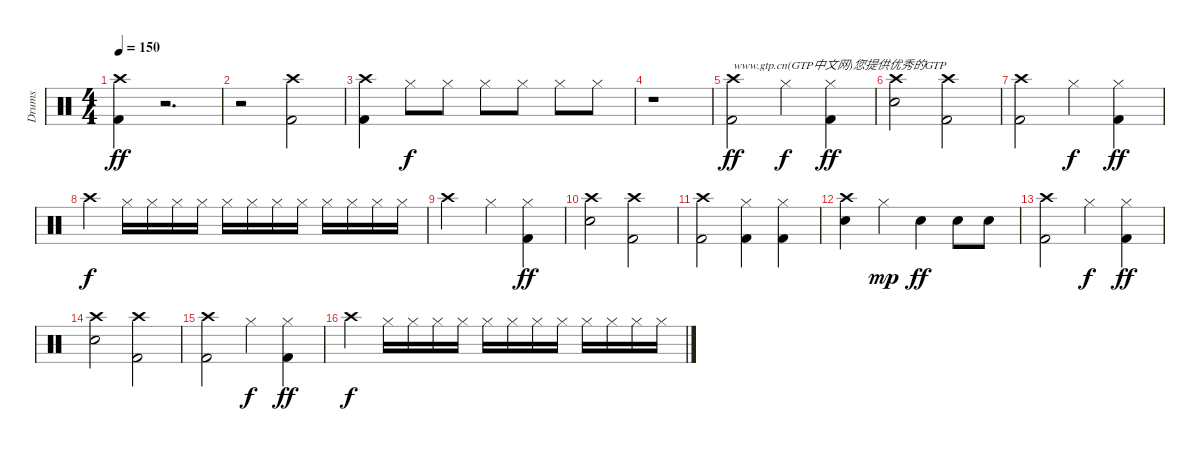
\track ("Drums" "Drums") {instrument percussion}
\staff {score}
\articulation defaults
\ts (4 4)
\tempo 150
\clef neutral
\ks c
("Kick (hit) 2" "Crash high (hit)").4{dy ff} r.2{d} |
r.2 ("Kick (hit) 2" "Crash high (hit)").2 |
("Kick (hit) 2" "Crash high (hit)").4 "Hi-Hat (closed)".8{dy f} "Hi-Hat (closed)".8 "Hi-Hat (closed)".8 "Hi-Hat (closed)".8 "Hi-Hat (closed)".8 "Hi-Hat (closed)".8 |
r.1 |
("Crash high (hit)" "Kick (hit) 2").2{txt "www.gtp.cn(GTP中文网)您提供优秀的GTP" dy ff} "Hi-Hat (closed)".4{dy f} ("Hi-Hat (closed)" "Kick (hit) 2").4{dy ff} |
("Crash high (hit)" "Snare (hit) 2").2 ("Crash high (hit)" "Kick (hit) 2").2 |
("Crash high (hit)" "Kick (hit) 2").2 "Hi-Hat (closed)".4{dy f} ("Hi-Hat (closed)" "Kick (hit) 2").4{dy ff} |
"Crash high (hit)".4{dy f} "Hi-Hat (closed)".16 "Hi-Hat (closed)".16 "Hi-Hat (closed)".16 "Hi-Hat (closed)".16 "Hi-Hat (closed)".16 "Hi-Hat (closed)".16 "Hi-Hat (closed)".16 "Hi-Hat (closed)".16 "Hi-Hat (closed)".16 "Hi-Hat (closed)".16 "Hi-Hat (closed)".16 "Hi-Hat (closed)".16 |
"Crash high (hit)".2 "Hi-Hat (closed)".4 ("Hi-Hat (closed)" "Kick (hit) 2").4{dy ff} |
("Crash high (hit)" "Snare (hit) 2").2 ("Crash high (hit)" "Kick (hit) 2").2 |
("Crash high (hit)" "Kick (hit) 2").2 ("Kick (hit) 2" "Hi-Hat (closed)").4 ("Hi-Hat (closed)" "Kick (hit) 2").4 |
("Snare (hit) 2" "Crash high (hit)").4 "Hi-Hat (closed)".4{dy mp} "Snare (hit) 2".4{dy ff} "Snare (hit) 2".8 "Snare (hit) 2".8 |
("Crash high (hit)" "Kick (hit) 2").2 "Hi-Hat (closed)".4{dy f} ("Hi-Hat (closed)" "Kick (hit) 2").4{dy ff} |
("Crash high (hit)" "Snare (hit) 2").2 ("Crash high (hit)" "Kick (hit) 2").2 |
("Crash high (hit)" "Kick (hit) 2").2 "Hi-Hat (closed)".4{dy f} ("Hi-Hat (closed)" "Kick (hit) 2").4{dy ff} |
"Crash high (hit)".4{dy f} "Hi-Hat (closed)".16 "Hi-Hat (closed)".16 "Hi-Hat (closed)".16 "Hi-Hat (closed)".16 "Hi-Hat (closed)".16 "Hi-Hat (closed)".16 "Hi-Hat (closed)".16 "Hi-Hat (closed)".16 "Hi-Hat (closed)".16 "Hi-Hat (closed)".16 "Hi-Hat (closed)".16 "Hi-Hat (closed)".16
